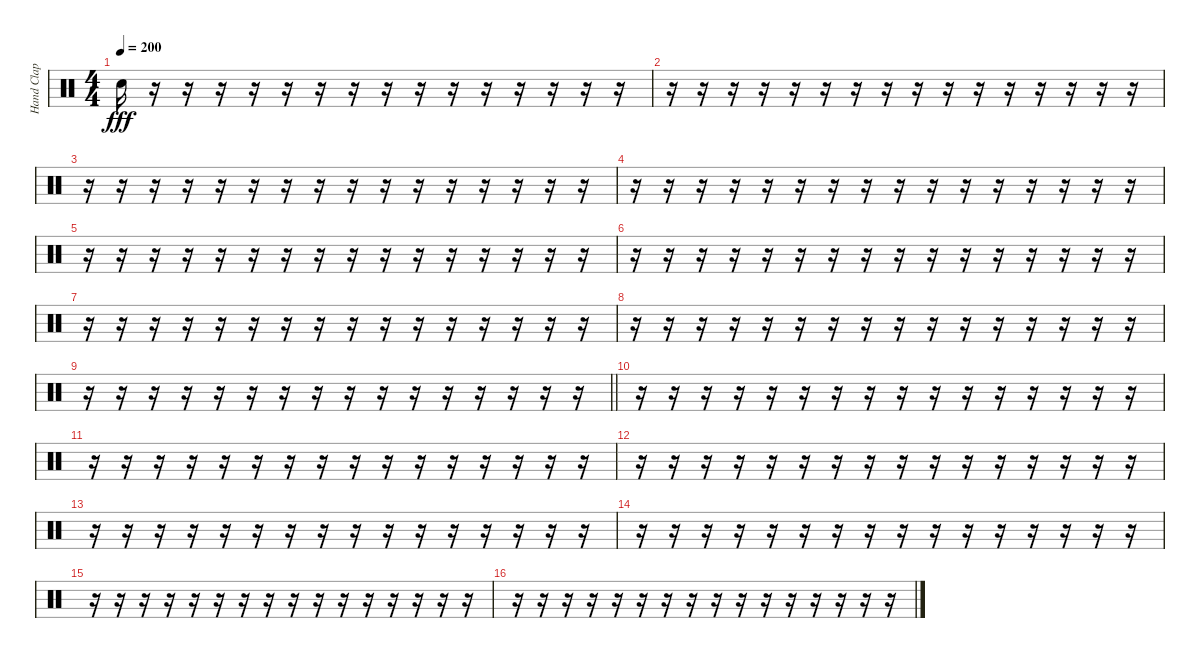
\track ("Hand Clap" "Hand Clap") {instrument percussion}
\staff {score}
\articulation defaults
\ts (4 4)
\tempo 200
\clef neutral
\ks c "Hand Clap (hit)".16{dy fff}
r.16 r.16 r.16 r.16 r.16 r.16 r.16 r.16 r.16 r.16 r.16 r.16 r.16 r.16 r.16 |
r.16 r.16 r.16 r.16 r.16 r.16 r.16 r.16 r.16 r.16 r.16 r.16 r.16 r.16 r.16 r.16 |
r.16 r.16 r.16 r.16 r.16 r.16 r.16 r.16 r.16 r.16 r.16 r.16 r.16 r.16 r.16 r.16 |
r.16 r.16 r.16 r.16 r.16 r.16 r.16 r.16 r.16 r.16 r.16 r.16 r.16 r.16 r.16 r.16 |
r.16 r.16 r.16 r.16 r.16 r.16 r.16 r.16 r.16 r.16 r.16 r.16 r.16 r.16 r.16 r.16 |
r.16 r.16 r.16 r.16 r.16 r.16 r.16 r.16 r.16 r.16 r.16 r.16 r.16 r.16 r.16 r.16 |
r.16 r.16 r.16 r.16 r.16 r.16 r.16 r.16 r.16 r.16 r.16 r.16 r.16 r.16 r.16 r.16 |
r.16 r.16 r.16 r.16 r.16 r.16 r.16 r.16 r.16 r.16 r.16 r.16 r.16 r.16 r.16 r.16 |
\barLineRight lightlight
r.16 r.16 r.16 r.16 r.16 r.16 r.16 r.16 r.16 r.16 r.16 r.16 r.16 r.16 r.16 r.16 |
r.16 r.16 r.16 r.16 r.16 r.16 r.16 r.16 r.16 r.16 r.16 r.16 r.16 r.16 r.16 r.16 |
r.16 r.16 r.16 r.16 r.16 r.16 r.16 r.16 r.16 r.16 r.16 r.16 r.16 r.16 r.16 r.16 |
r.16 r.16 r.16 r.16 r.16 r.16 r.16 r.16 r.16 r.16 r.16 r.16 r.16 r.16 r.16 r.16 |
r.16 r.16 r.16 r.16 r.16 r.16 r.16 r.16 r.16 r.16 r.16 r.16 r.16 r.16 r.16 r.16 |
r.16 r.16 r.16 r.16 r.16 r.16 r.16 r.16 r.16 r.16 r.16 r.16 r.16 r.16 r.16 r.16 |
r.16 r.16 r.16 r.16 r.16 r.16 r.16 r.16 r.16 r.16 r.16 r.16 r.16 r.16 r.16 r.16 |
r.16 r.16 r.16 r.16 r.16 r.16 r.16 r.16 r.16 r.16 r.16 r.16 r.16 r.16 r.16 r.16
